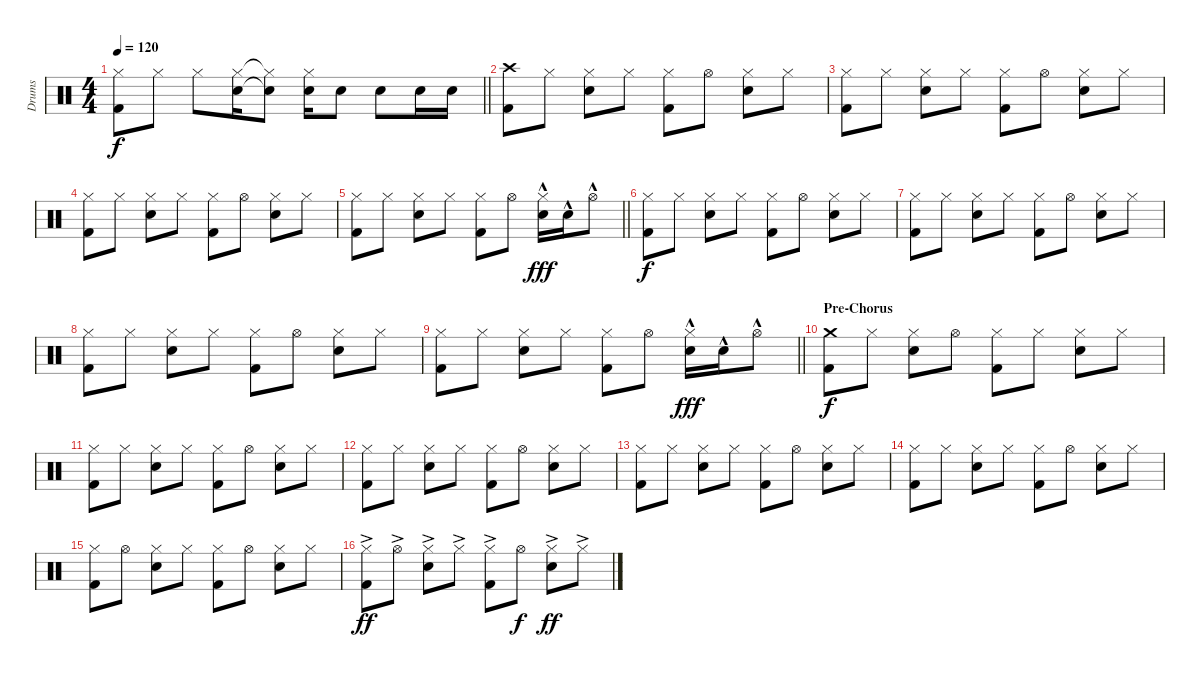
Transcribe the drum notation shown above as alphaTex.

\track ("Drums" "Drums") {instrument percussion}
\staff {score}
\articulation defaults
\ts (4 4)
\tempo 120
\clef neutral
\barLineRight lightlight
\ks c
("Hi-Hat (closed)" "Kick (hit) 2").8{dy f} "Hi-Hat (closed)".8 "Hi-Hat (closed)".8 ("Electric Snare (hit)" "Hi-Hat (closed)").16 ("Electric Snare (hit)"{t} "Hi-Hat (closed)"{t}).8 ("Electric Snare (hit)" "Hi-Hat (closed)").16 "Electric Snare (hit)".8 "Electric Snare (hit)".8 "Electric Snare (hit)".16 "Electric Snare (hit)".16 |
("Crash high (hit)" "Kick (hit) 2").8 "Hi-Hat (closed)".8 ("Hi-Hat (closed)" "Electric Snare (hit)").8 "Hi-Hat (closed)".8 ("Hi-Hat (closed)" "Kick (hit) 2").8 "Hi-Hat (open)".8 ("Hi-Hat (closed)" "Electric Snare (hit)").8 "Hi-Hat (closed)".8 |
("Hi-Hat (closed)" "Kick (hit) 2").8 "Hi-Hat (closed)".8 ("Hi-Hat (closed)" "Electric Snare (hit)").8 "Hi-Hat (closed)".8 ("Hi-Hat (closed)" "Kick (hit) 2").8 "Hi-Hat (open)".8 ("Hi-Hat (closed)" "Electric Snare (hit)").8 "Hi-Hat (closed)".8 |
("Hi-Hat (closed)" "Kick (hit) 2").8 "Hi-Hat (closed)".8 ("Hi-Hat (closed)" "Electric Snare (hit)").8 "Hi-Hat (closed)".8 ("Hi-Hat (closed)" "Kick (hit) 2").8 "Hi-Hat (open)".8 ("Hi-Hat (closed)" "Electric Snare (hit)").8 "Hi-Hat (closed)".8 |
\barLineRight lightlight
("Hi-Hat (closed)" "Kick (hit) 2").8 "Hi-Hat (closed)".8 ("Hi-Hat (closed)" "Electric Snare (hit)").8 "Hi-Hat (closed)".8 ("Hi-Hat (closed)" "Kick (hit) 2").8 "Hi-Hat (open)".8 ("Hi-Hat (closed)" "Electric Snare (hit)"{hac}).16{dy fff} "Electric Snare (hit)"{hac}.16 "Hi-Hat (open)"{hac}.8 |
("Hi-Hat (closed)" "Kick (hit) 2").8{dy f} "Hi-Hat (closed)".8 ("Hi-Hat (closed)" "Electric Snare (hit)").8 "Hi-Hat (closed)".8 ("Hi-Hat (closed)" "Kick (hit) 2").8 "Hi-Hat (open)".8 ("Hi-Hat (closed)" "Electric Snare (hit)").8 "Hi-Hat (closed)".8 |
("Hi-Hat (closed)" "Kick (hit) 2").8 "Hi-Hat (closed)".8 ("Hi-Hat (closed)" "Electric Snare (hit)").8 "Hi-Hat (closed)".8 ("Hi-Hat (closed)" "Kick (hit) 2").8 "Hi-Hat (open)".8 ("Hi-Hat (closed)" "Electric Snare (hit)").8 "Hi-Hat (closed)".8 |
("Hi-Hat (closed)" "Kick (hit) 2").8 "Hi-Hat (closed)".8 ("Hi-Hat (closed)" "Electric Snare (hit)").8 "Hi-Hat (closed)".8 ("Hi-Hat (closed)" "Kick (hit) 2").8 "Hi-Hat (open)".8 ("Hi-Hat (closed)" "Electric Snare (hit)").8 "Hi-Hat (closed)".8 |
\barLineRight lightlight
("Hi-Hat (closed)" "Kick (hit) 2").8 "Hi-Hat (closed)".8 ("Hi-Hat (closed)" "Electric Snare (hit)").8 "Hi-Hat (closed)".8 ("Hi-Hat (closed)" "Kick (hit) 2").8 "Hi-Hat (open)".8 ("Hi-Hat (closed)" "Electric Snare (hit)"{hac}).16{dy fff} "Electric Snare (hit)"{hac}.16 "Hi-Hat (open)"{hac}.8 |
\section ("" "Pre-Chorus")
("Kick (hit) 2" "Crash medium (hit)").8{dy f} "Hi-Hat (closed)".8 ("Hi-Hat (closed)" "Electric Snare (hit)").8 "Hi-Hat (open)".8 ("Hi-Hat (closed)" "Kick (hit) 2").8 "Hi-Hat (closed)".8 ("Hi-Hat (closed)" "Electric Snare (hit)").8 "Hi-Hat (closed)".8 |
("Hi-Hat (closed)" "Kick (hit) 2").8 "Hi-Hat (closed)".8 ("Hi-Hat (closed)" "Electric Snare (hit)").8 "Hi-Hat (closed)".8 ("Hi-Hat (closed)" "Kick (hit) 2").8 "Hi-Hat (open)".8 ("Hi-Hat (closed)" "Electric Snare (hit)").8 "Hi-Hat (closed)".8 |
("Hi-Hat (closed)" "Kick (hit) 2").8 "Hi-Hat (closed)".8 ("Hi-Hat (closed)" "Electric Snare (hit)").8 "Hi-Hat (closed)".8 ("Hi-Hat (closed)" "Kick (hit) 2").8 "Hi-Hat (open)".8 ("Hi-Hat (closed)" "Electric Snare (hit)").8 "Hi-Hat (closed)".8 |
("Hi-Hat (closed)" "Kick (hit) 2").8 "Hi-Hat (closed)".8 ("Hi-Hat (closed)" "Electric Snare (hit)").8 "Hi-Hat (closed)".8 ("Hi-Hat (closed)" "Kick (hit) 2").8 "Hi-Hat (open)".8 ("Hi-Hat (closed)" "Electric Snare (hit)").8 "Hi-Hat (closed)".8 |
("Hi-Hat (closed)" "Kick (hit) 2").8 "Hi-Hat (closed)".8 ("Hi-Hat (closed)" "Electric Snare (hit)").8 "Hi-Hat (closed)".8 ("Hi-Hat (closed)" "Kick (hit) 2").8 "Hi-Hat (open)".8 ("Hi-Hat (closed)" "Electric Snare (hit)").8 "Hi-Hat (closed)".8 |
("Hi-Hat (closed)" "Kick (hit) 2").8 "Hi-Hat (open)".8 ("Hi-Hat (closed)" "Electric Snare (hit)").8 "Hi-Hat (closed)".8 ("Hi-Hat (closed)" "Kick (hit) 2").8 "Hi-Hat (open)".8 ("Hi-Hat (closed)" "Electric Snare (hit)").8 "Hi-Hat (closed)".8 |
("Hi-Hat (closed)"{ac} "Kick (hit) 2").8{dy ff} "Hi-Hat (open)"{ac}.8 ("Hi-Hat (closed)"{ac} "Electric Snare (hit)").8 "Hi-Hat (closed)"{ac}.8 ("Hi-Hat (closed)"{ac} "Kick (hit) 2").8 "Hi-Hat (open)".8{dy f} ("Hi-Hat (closed)"{ac} "Electric Snare (hit)").8{dy ff} "Hi-Hat (closed)"{ac}.8
